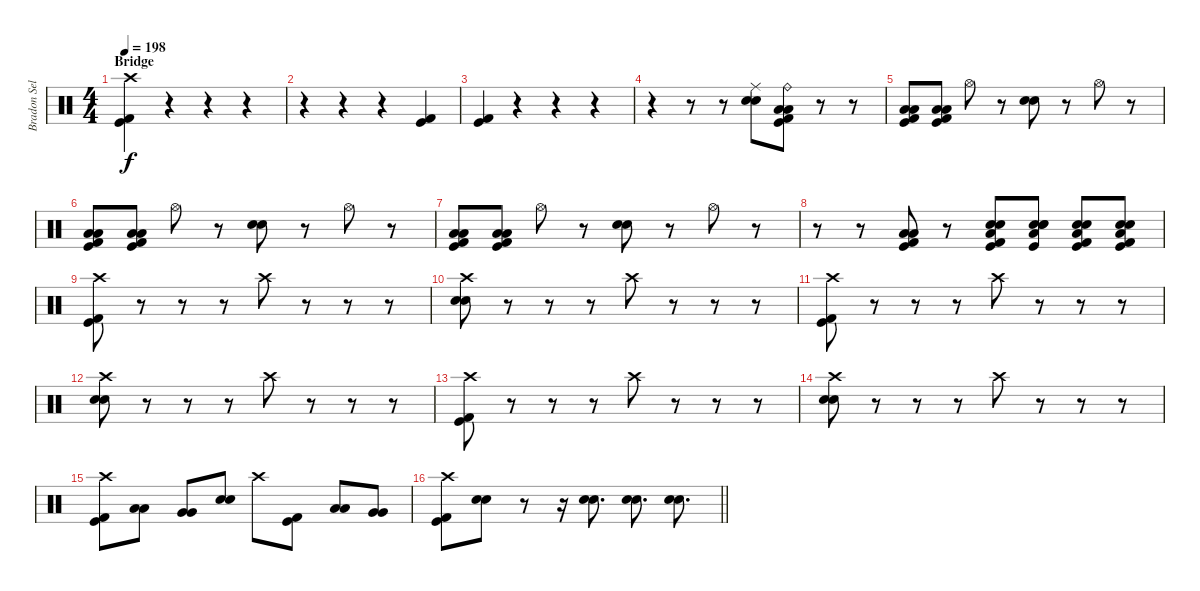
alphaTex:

\track ("Bradon Sellar" "Bradon Sel") {instrument percussion}
\staff {score}
\articulation defaults
\ts (4 4)
\section ("" "Bridge")
\tempo 198
\clef neutral
\ks c
("Crash high (hit)" "Kick (hit) 2" "Kick (hit)").4{dy f} r.4 r.4 r.4 |
r.4 r.4 r.4 ("Kick (hit) 2" "Kick (hit)").4 |
("Kick (hit) 2" "Kick (hit)").4 r.4 r.4 r.4 |
r.4 r.8 r.8 ("Ride (middle)" "Electric Snare (hit)" "Snare (hit) 2").8 ("Ride (bell)" "Low Floor Tom (hit)" "Low Floor Tom (hit)" "Kick (hit) 2" "Kick (hit)").8 r.8 r.8 |
("Low Floor Tom (hit)" "Low Floor Tom (hit)" "Kick (hit) 2" "Kick (hit)").8 ("Low Floor Tom (hit)" "Low Floor Tom (hit)" "Kick (hit) 2" "Kick (hit)").8 "Hi-Hat (open)".8 r.8 ("Electric Snare (hit)" "Snare (hit) 2").8 r.8 "Hi-Hat (open)".8 r.8 |
("Low Floor Tom (hit)" "Low Floor Tom (hit)" "Kick (hit) 2" "Kick (hit)").8 ("Low Floor Tom (hit)" "Low Floor Tom (hit)" "Kick (hit) 2" "Kick (hit)").8 "Hi-Hat (open)".8 r.8 ("Electric Snare (hit)" "Snare (hit) 2").8 r.8 "Hi-Hat (open)".8 r.8 |
("Low Floor Tom (hit)" "Low Floor Tom (hit)" "Kick (hit) 2" "Kick (hit)").8 ("Low Floor Tom (hit)" "Low Floor Tom (hit)" "Kick (hit) 2" "Kick (hit)").8 "Hi-Hat (open)".8 r.8 ("Electric Snare (hit)" "Snare (hit) 2").8 r.8 "Hi-Hat (open)".8 r.8 |
r.8 r.8 ("Low Floor Tom (hit)" "Low Floor Tom (hit)" "Kick (hit) 2" "Kick (hit)").8 r.8 ("Snare (hit) 2" "Electric Snare (hit)" "Low Floor Tom (hit)" "Kick (hit) 2" "Kick (hit)").8 ("Snare (hit) 2" "Electric Snare (hit)" "Low Floor Tom (hit)" "Snare (hit)" "Kick (hit)").8 ("Snare (hit) 2" "Electric Snare (hit)" "Low Floor Tom (hit)" "Kick (hit) 2" "Kick (hit)").8 ("Snare (hit) 2" "Electric Snare (hit)" "Low Floor Tom (hit)" "Kick (hit) 2" "Kick (hit)").8 |
("Crash high (hit)" "Kick (hit) 2" "Kick (hit)").8 r.8 r.8 r.8 "Crash high (hit)".8 r.8 r.8 r.8 |
("Crash high (hit)" "Snare (hit) 2" "Electric Snare (hit)").8 r.8 r.8 r.8 "Crash high (hit)".8 r.8 r.8 r.8 |
("Crash high (hit)" "Kick (hit) 2" "Kick (hit)").8 r.8 r.8 r.8 "Crash high (hit)".8 r.8 r.8 r.8 |
("Crash high (hit)" "Snare (hit) 2" "Electric Snare (hit)").8 r.8 r.8 r.8 "Crash high (hit)".8 r.8 r.8 r.8 |
("Crash high (hit)" "Kick (hit) 2" "Kick (hit)").8 r.8 r.8 r.8 "Crash high (hit)".8 r.8 r.8 r.8 |
("Crash high (hit)" "Snare (hit) 2" "Electric Snare (hit)").8 r.8 r.8 r.8 "Crash high (hit)".8 r.8 r.8 r.8 |
("Crash high (hit)" "Kick (hit) 2" "Kick (hit)").8 ("Low Tom (hit)" "Low Tom (hit)").8 ("Very Low Tom (hit)" "Very Low Tom (hit)").8 ("Electric Snare (hit)" "Snare (hit) 2").8 "Crash high (hit)".8 ("Kick (hit)" "Kick (hit) 2").8 ("Low Tom (hit)" "Low Tom (hit)").8 ("Very Low Tom (hit)" "Very Low Tom (hit)").8 |
\barLineRight lightlight
("Crash high (hit)" "Kick (hit) 2" "Kick (hit)").8 ("Snare (hit) 2" "Electric Snare (hit)").8 r.8 r.16 ("Snare (hit) 2" "Electric Snare (hit)").8{d} ("Snare (hit) 2" "Electric Snare (hit)").8{d} ("Snare (hit) 2" "Electric Snare (hit)").8{d}
